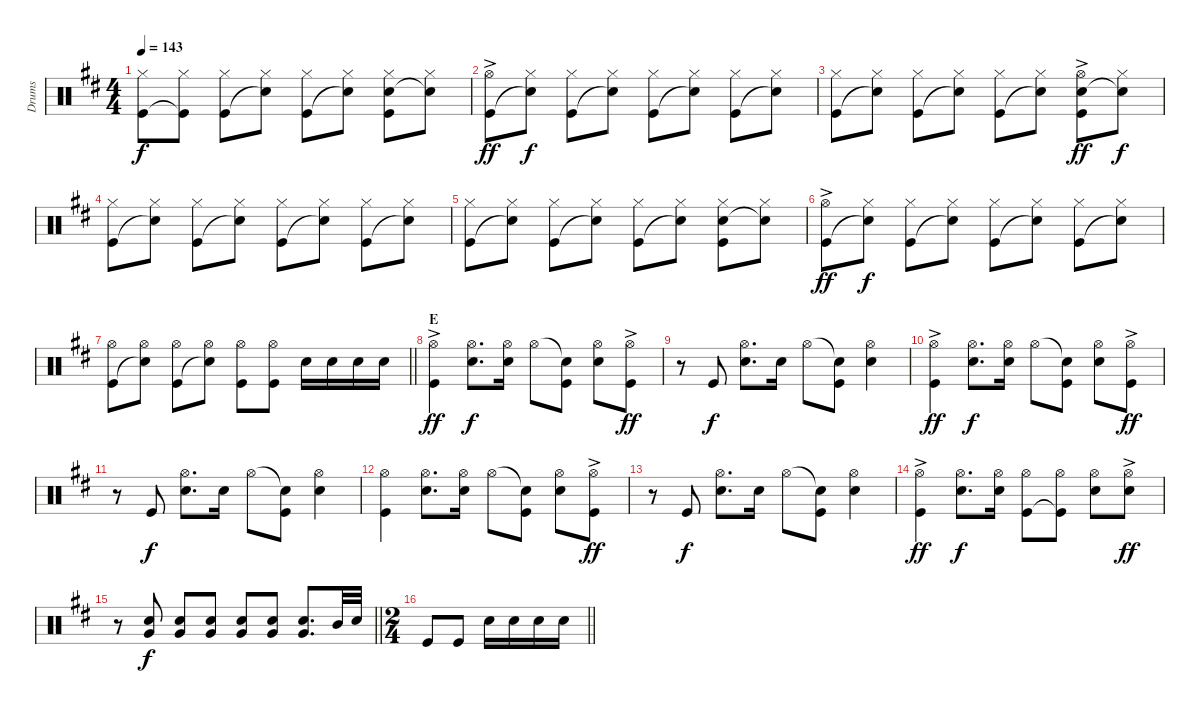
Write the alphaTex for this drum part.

\track ("Drums" "Drums") {instrument percussion}
\staff {score}
\articulation defaults
\ts (4 4)
\tempo 143
\clef neutral
\ks d
("Hi-Hat (closed)" "Kick (hit)").8{dy f} ("Hi-Hat (closed)" "Kick (hit)"{t}).8 ("Hi-Hat (closed)" "Kick (hit)").8 ("Hi-Hat (closed)" "Snare (hit)"{t}).8 ("Hi-Hat (closed)" "Kick (hit)").8 ("Hi-Hat (closed)" "Snare (hit)"{t}).8 ("Hi-Hat (closed)" "Snare (hit) 2" "Kick (hit)").8 ("Hi-Hat (closed)" "Snare (hit)"{t}).8 |
("Hi-Hat (open)"{ac} "Kick (hit)"{ac}).8{dy ff} ("Hi-Hat (closed)" "Snare (hit)"{t}).8{dy f} ("Hi-Hat (closed)" "Kick (hit)").8 ("Hi-Hat (closed)" "Snare (hit)"{t}).8 ("Hi-Hat (closed)" "Kick (hit)").8 ("Hi-Hat (closed)" "Snare (hit)"{t}).8 ("Hi-Hat (closed)" "Kick (hit)").8 ("Hi-Hat (closed)" "Snare (hit)"{t}).8 |
("Hi-Hat (closed)" "Kick (hit)").8 ("Hi-Hat (closed)" "Snare (hit)"{t}).8 ("Hi-Hat (closed)" "Kick (hit)").8 ("Hi-Hat (closed)" "Snare (hit)"{t}).8 ("Hi-Hat (closed)" "Kick (hit)").8 ("Hi-Hat (closed)" "Snare (hit)"{t}).8 ("Hi-Hat (open)"{ac} "Snare (hit) 2"{ac} "Kick (hit)"{ac}).8{dy ff} ("Hi-Hat (closed)" "Snare (hit)"{t}).8{dy f} |
("Hi-Hat (closed)" "Kick (hit)").8 ("Hi-Hat (closed)" "Snare (hit)"{t}).8 ("Hi-Hat (closed)" "Kick (hit)").8 ("Hi-Hat (closed)" "Snare (hit)"{t}).8 ("Hi-Hat (closed)" "Kick (hit)").8 ("Hi-Hat (closed)" "Snare (hit)"{t}).8 ("Hi-Hat (closed)" "Kick (hit)").8 ("Hi-Hat (closed)" "Snare (hit)"{t}).8 |
("Hi-Hat (closed)" "Kick (hit)").8 ("Hi-Hat (closed)" "Snare (hit)"{t}).8 ("Hi-Hat (closed)" "Kick (hit)").8 ("Hi-Hat (closed)" "Snare (hit)"{t}).8 ("Hi-Hat (closed)" "Kick (hit)").8 ("Hi-Hat (closed)" "Snare (hit)"{t}).8 ("Hi-Hat (closed)" "Snare (hit) 2" "Kick (hit)").8 ("Hi-Hat (closed)" "Snare (hit)"{t}).8 |
("Hi-Hat (open)"{ac} "Kick (hit)"{ac}).8{dy ff} ("Hi-Hat (closed)" "Snare (hit)"{t}).8{dy f} ("Hi-Hat (closed)" "Kick (hit)").8 ("Hi-Hat (closed)" "Snare (hit)"{t}).8 ("Hi-Hat (closed)" "Kick (hit)").8 ("Hi-Hat (closed)" "Snare (hit)"{t}).8 ("Hi-Hat (closed)" "Kick (hit)").8 ("Hi-Hat (closed)" "Snare (hit)"{t}).8 |
\barLineRight lightlight
("Hi-Hat (open)" "Kick (hit)").8 ("Hi-Hat (open)" "Snare (hit)"{t}).8 ("Hi-Hat (open)" "Kick (hit)").8 ("Hi-Hat (open)" "Snare (hit)"{t}).8 ("Hi-Hat (open)" "Kick (hit)").8 ("Hi-Hat (open)" "Kick (hit)").8 "Snare (hit) 2".16 "Snare (hit) 2".16 "Snare (hit) 2".16 "Snare (hit) 2".16 |
\section ("" "E")
("Hi-Hat (open)"{ac} "Kick (hit)"{ac}).4{dy ff} ("Hi-Hat (open)" "Snare (hit) 2").8{d dy f} ("Hi-Hat (open)" "Snare (hit) 2").16 "Hi-Hat (open)".8 ("Snare (hit)"{t} "Kick (hit)").8 ("Hi-Hat (open)" "Snare (hit) 2").8 ("Hi-Hat (open)"{ac} "Kick (hit)"{ac}).8{dy ff} |
r.8 "Kick (hit)".8{dy f} ("Hi-Hat (open)" "Snare (hit) 2").8{d} "Snare (hit) 2".16 "Hi-Hat (open)".8 ("Snare (hit)"{t} "Kick (hit)").8 ("Hi-Hat (open)" "Snare (hit) 2").4 |
("Hi-Hat (open)"{ac} "Kick (hit)"{ac}).4{dy ff} ("Hi-Hat (open)" "Snare (hit) 2").8{d dy f} ("Hi-Hat (open)" "Snare (hit) 2").16 "Hi-Hat (open)".8 ("Snare (hit)"{t} "Kick (hit)").8 ("Hi-Hat (open)" "Snare (hit) 2").8 ("Hi-Hat (open)"{ac} "Kick (hit)"{ac}).8{dy ff} |
r.8 "Kick (hit)".8{dy f} ("Hi-Hat (open)" "Snare (hit) 2").8{d} "Snare (hit) 2".16 "Hi-Hat (open)".8 ("Snare (hit)"{t} "Kick (hit)").8 ("Hi-Hat (open)" "Snare (hit) 2").4 |
("Hi-Hat (open)" "Kick (hit)").4 ("Hi-Hat (open)" "Snare (hit) 2").8{d} ("Hi-Hat (open)" "Snare (hit) 2").16 "Hi-Hat (open)".8 ("Snare (hit)"{t} "Kick (hit)").8 ("Hi-Hat (open)" "Snare (hit) 2").8 ("Hi-Hat (open)"{ac} "Kick (hit)"{ac}).8{dy ff} |
r.8 "Kick (hit)".8{dy f} ("Hi-Hat (open)" "Snare (hit) 2").8{d} "Snare (hit) 2".16 "Hi-Hat (open)".8 ("Snare (hit)"{t} "Kick (hit)").8 ("Hi-Hat (open)" "Snare (hit) 2").4 |
("Hi-Hat (open)"{ac} "Kick (hit)"{ac}).4{dy ff} ("Hi-Hat (open)" "Snare (hit) 2").8{d dy f} ("Hi-Hat (open)" "Snare (hit) 2").16 ("Hi-Hat (open)" "Kick (hit)").8 ("Hi-Hat (open)" "Kick (hit)"{t}).8 ("Hi-Hat (open)" "Snare (hit) 2").8 ("Hi-Hat (open)"{ac} "Snare (hit) 2").8{dy ff} |
\barLineRight lightlight
r.8 ("Snare (hit) 2" "Very Low Tom (hit)").8{dy f} ("Snare (hit) 2" "Very Low Tom (hit)").8 ("Snare (hit) 2" "Very Low Tom (hit)").8 ("Snare (hit) 2" "Very Low Tom (hit)").8 ("Snare (hit) 2" "Very Low Tom (hit)").8 ("Snare (hit) 2" "Very Low Tom (hit)").8{d} "Mid Tom (hit)".32 "Snare (hit) 2".32 |
\ts (2 4)
\barLineRight lightlight "Kick (hit)".8 "Kick (hit)".8 "Snare (hit) 2".16 "Snare (hit) 2".16 "Snare (hit) 2".16 "Snare (hit) 2".16
